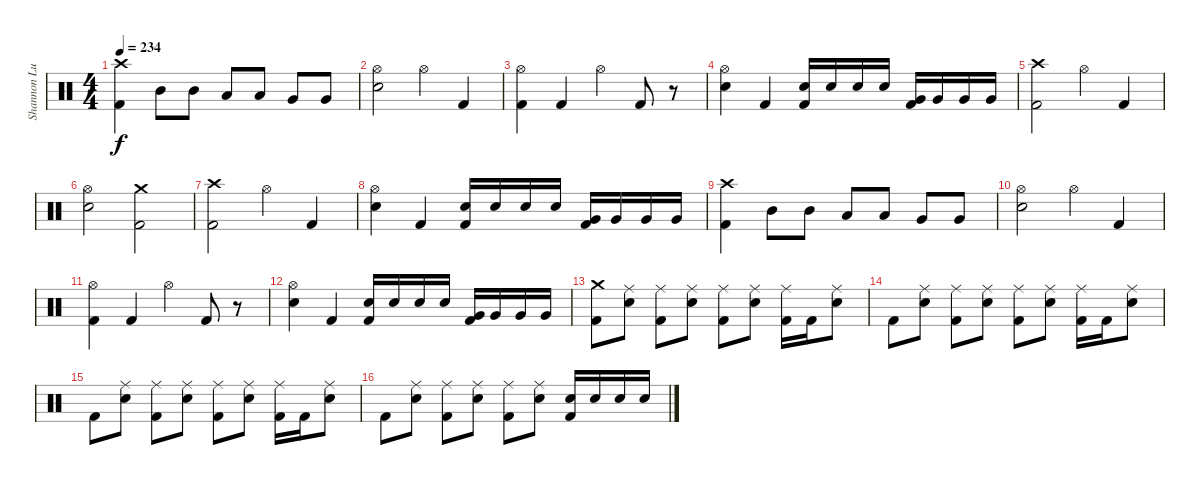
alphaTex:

\track ("Shannon Lucas (Drums)" "Shannon Lu") {instrument percussion}
\staff {score}
\articulation defaults
\ts (4 4)
\tempo 234
\clef neutral
\ks c
("Crash high (hit)" "Kick (hit) 2").4{dy f} "Mid Tom (hit)".8 "Mid Tom (hit)".8 "Low Tom (hit)".8 "Low Tom (hit)".8 "Very Low Tom (hit)".8 "Very Low Tom (hit)".8 |
("Hi-Hat (open)" "Electric Snare (hit)").2 "Hi-Hat (open)".4 "Kick (hit) 2".4 |
("Hi-Hat (open)" "Kick (hit) 2").4 "Kick (hit) 2".4 "Hi-Hat (open)".4 "Kick (hit) 2".8 r.8 |
("Hi-Hat (open)" "Electric Snare (hit)").4 "Kick (hit) 2".4 ("Electric Snare (hit)" "Kick (hit) 2").16 "Electric Snare (hit)".16 "Electric Snare (hit)".16 "Electric Snare (hit)".16 ("Very Low Tom (hit)" "Kick (hit) 2").16 "Very Low Tom (hit)".16 "Very Low Tom (hit)".16 "Very Low Tom (hit)".16 |
("Crash high (hit)" "Kick (hit) 2").2 "Hi-Hat (open)".4 "Kick (hit) 2".4 |
("Hi-Hat (open)" "Electric Snare (hit)").2 ("Crash medium (hit)" "Kick (hit) 2").2 |
("Crash high (hit)" "Kick (hit) 2").2 "Hi-Hat (open)".4 "Kick (hit) 2".4 |
("Hi-Hat (open)" "Electric Snare (hit)").4 "Kick (hit) 2".4 ("Electric Snare (hit)" "Kick (hit) 2").16 "Electric Snare (hit)".16 "Electric Snare (hit)".16 "Electric Snare (hit)".16 ("Very Low Tom (hit)" "Kick (hit) 2").16 "Very Low Tom (hit)".16 "Very Low Tom (hit)".16 "Very Low Tom (hit)".16 |
("Crash high (hit)" "Kick (hit) 2").4 "Mid Tom (hit)".8 "Mid Tom (hit)".8 "Low Tom (hit)".8 "Low Tom (hit)".8 "Very Low Tom (hit)".8 "Very Low Tom (hit)".8 |
("Hi-Hat (open)" "Electric Snare (hit)").2 "Hi-Hat (open)".4 "Kick (hit) 2".4 |
("Hi-Hat (open)" "Kick (hit) 2").4 "Kick (hit) 2".4 "Hi-Hat (open)".4 "Kick (hit) 2".8 r.8 |
("Hi-Hat (open)" "Electric Snare (hit)").4 "Kick (hit) 2".4 ("Electric Snare (hit)" "Kick (hit) 2").16 "Electric Snare (hit)".16 "Electric Snare (hit)".16 "Electric Snare (hit)".16 ("Very Low Tom (hit)" "Kick (hit) 2").16 "Very Low Tom (hit)".16 "Very Low Tom (hit)".16 "Very Low Tom (hit)".16 |
("Crash medium (hit)" "Kick (hit) 2").8 ("Ride (middle)" "Electric Snare (hit)").8 ("Ride (middle)" "Kick (hit) 2").8 ("Ride (middle)" "Electric Snare (hit)").8 ("Ride (middle)" "Kick (hit) 2").8 ("Ride (middle)" "Electric Snare (hit)").8 ("Ride (middle)" "Kick (hit) 2").16 "Kick (hit) 2".16 ("Ride (middle)" "Electric Snare (hit)").8 |
"Kick (hit) 2".8 ("Ride (middle)" "Electric Snare (hit)").8 ("Ride (middle)" "Kick (hit) 2").8 ("Ride (middle)" "Electric Snare (hit)").8 ("Ride (middle)" "Kick (hit) 2").8 ("Ride (middle)" "Electric Snare (hit)").8 ("Ride (middle)" "Kick (hit) 2").16 "Kick (hit) 2".16 ("Ride (middle)" "Electric Snare (hit)").8 |
"Kick (hit) 2".8 ("Ride (middle)" "Electric Snare (hit)").8 ("Ride (middle)" "Kick (hit) 2").8 ("Ride (middle)" "Electric Snare (hit)").8 ("Ride (middle)" "Kick (hit) 2").8 ("Ride (middle)" "Electric Snare (hit)").8 ("Ride (middle)" "Kick (hit) 2").16 "Kick (hit) 2".16 ("Ride (middle)" "Electric Snare (hit)").8 |
"Kick (hit) 2".8 ("Ride (middle)" "Electric Snare (hit)").8 ("Ride (middle)" "Kick (hit) 2").8 ("Ride (middle)" "Electric Snare (hit)").8 ("Ride (middle)" "Kick (hit) 2").8 ("Ride (middle)" "Electric Snare (hit)").8 ("Electric Snare (hit)" "Kick (hit) 2").16 "Electric Snare (hit)".16 "Electric Snare (hit)".16 "Electric Snare (hit)".16
